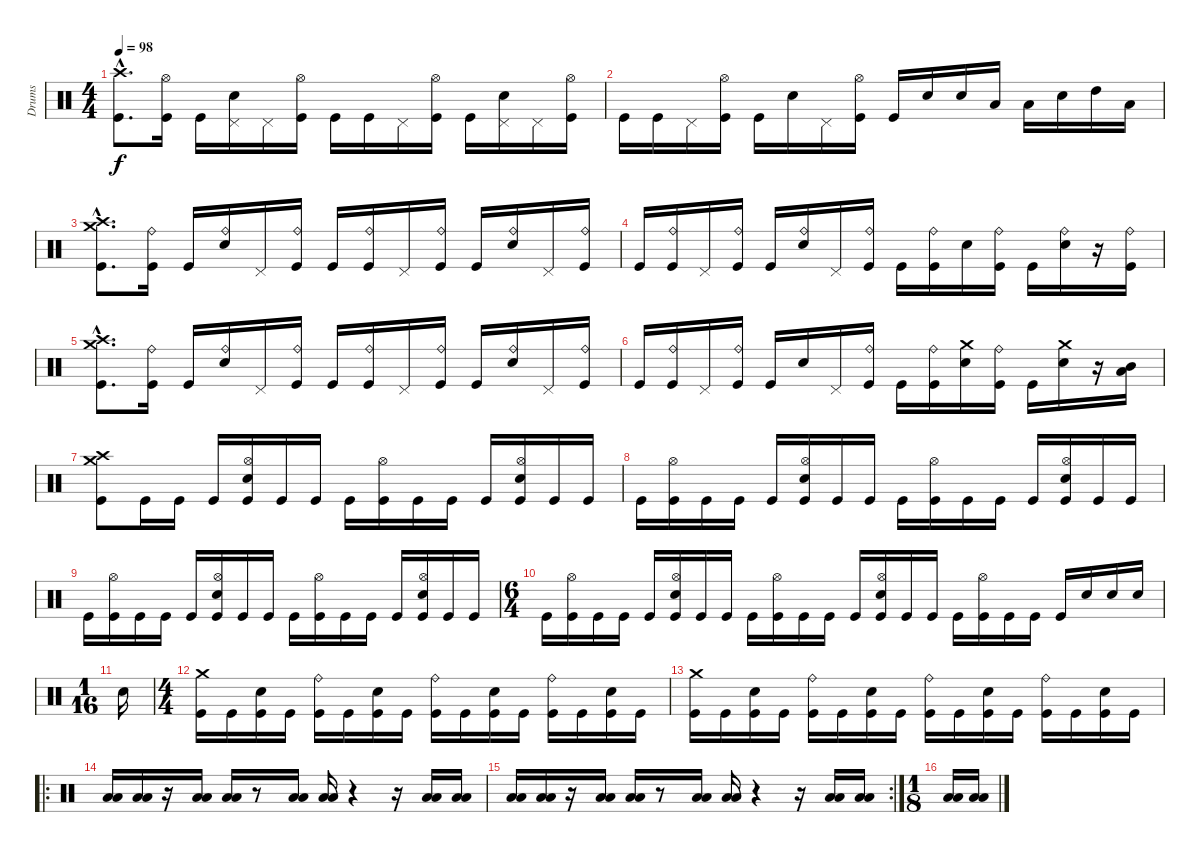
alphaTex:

\track ("Drums" "Drums") {instrument percussion}
\staff {score}
\articulation defaults
\ts (4 4)
\tempo 98
\clef neutral
\ks c
("Crash high (hit)"{hac} "Kick (hit)"{hac}).8{d dy f} ("Hi-Hat (open)" "Kick (hit)").16 "Kick (hit)".16 ("Pedal Hi-Hat (hit)" "Electric Snare (hit)").16 "Pedal Hi-Hat (hit)".16 ("Hi-Hat (open)" "Kick (hit)").16 "Kick (hit)".16 "Kick (hit)".16 "Pedal Hi-Hat (hit)".16 ("Hi-Hat (open)" "Kick (hit)").16 "Kick (hit)".16 ("Pedal Hi-Hat (hit)" "Electric Snare (hit)").16 "Pedal Hi-Hat (hit)".16 ("Hi-Hat (open)" "Kick (hit)").16 |
"Kick (hit)".16 "Kick (hit)".16 "Pedal Hi-Hat (hit)".16 ("Hi-Hat (open)" "Kick (hit)").16 "Kick (hit)".16 "Electric Snare (hit)".16 "Pedal Hi-Hat (hit)".16 ("Hi-Hat (open)" "Kick (hit)").16 "Kick (hit)".16 "Electric Snare (hit)".16 "Electric Snare (hit)".16 "Low Tom (hit)".16 "Low Tom (hit)".16 "Electric Snare (hit)".16 "High Tom (hit)".16 "Low Tom (hit)".16 |
("Crash high (hit)"{hac} "Kick (hit)"{hac} "Crash medium (hit)"{hac}).8{d} ("Ride (bell)" "Kick (hit)").16 "Kick (hit)".16 ("Ride (bell)" "Electric Snare (hit)").16 "Pedal Hi-Hat (hit)".16 ("Ride (bell)" "Kick (hit)").16 "Kick (hit)".16 ("Ride (bell)" "Kick (hit)").16 "Pedal Hi-Hat (hit)".16 ("Ride (bell)" "Kick (hit)").16 "Kick (hit)".16 ("Ride (bell)" "Electric Snare (hit)").16 "Pedal Hi-Hat (hit)".16 ("Ride (bell)" "Kick (hit)").16 |
"Kick (hit)".16 ("Ride (bell)" "Kick (hit)").16 "Pedal Hi-Hat (hit)".16 ("Ride (bell)" "Kick (hit)").16 "Kick (hit)".16 ("Ride (bell)" "Electric Snare (hit)").16 "Pedal Hi-Hat (hit)".16 ("Ride (bell)" "Kick (hit)").16 "Kick (hit)".16 ("Ride (bell)" "Kick (hit)").16 "Electric Snare (hit)".16 ("Ride (bell)" "Kick (hit)").16 "Kick (hit)".16 ("Ride (bell)" "Electric Snare (hit)").16 r.16 ("Ride (bell)" "Kick (hit)").16 |
("Crash high (hit)"{hac} "Kick (hit)"{hac} "Crash medium (hit)"{hac}).8{d} ("Ride (bell)" "Kick (hit)").16 "Kick (hit)".16 ("Ride (bell)" "Electric Snare (hit)").16 "Pedal Hi-Hat (hit)".16 ("Ride (bell)" "Kick (hit)").16 "Kick (hit)".16 ("Ride (bell)" "Kick (hit)").16 "Pedal Hi-Hat (hit)".16 ("Ride (bell)" "Kick (hit)").16 "Kick (hit)".16 ("Ride (bell)" "Electric Snare (hit)").16 "Pedal Hi-Hat (hit)".16 ("Ride (bell)" "Kick (hit)").16 |
"Kick (hit)".16 ("Ride (bell)" "Kick (hit)").16 "Pedal Hi-Hat (hit)".16 ("Ride (bell)" "Kick (hit)").16 "Kick (hit)".16 "Electric Snare (hit)".16 "Pedal Hi-Hat (hit)".16 ("Ride (bell)" "Kick (hit)").16 "Kick (hit)".16 ("Ride (bell)" "Kick (hit)").16 ("Crash medium (hit)" "Electric Snare (hit)").16 ("Ride (bell)" "Kick (hit)").16 "Kick (hit)".16 ("Crash medium (hit)" "Electric Snare (hit)").16 r.16 ("Mid Tom (hit)" "Low Tom (hit)").16 |
("Crash high (hit)" "Crash medium (hit)" "Kick (hit)").8 "Kick (hit)".16 "Kick (hit)".16 "Kick (hit)".16 ("Hi-Hat (open)" "Electric Snare (hit)" "Kick (hit)").16 "Kick (hit)".16 "Kick (hit)".16 "Kick (hit)".16 ("Hi-Hat (open)" "Kick (hit)").16 "Kick (hit)".16 "Kick (hit)".16 "Kick (hit)".16 ("Hi-Hat (open)" "Electric Snare (hit)" "Kick (hit)").16 "Kick (hit)".16 "Kick (hit)".16 |
"Kick (hit)".16 ("Hi-Hat (open)" "Kick (hit)").16 "Kick (hit)".16 "Kick (hit)".16 "Kick (hit)".16 ("Hi-Hat (open)" "Electric Snare (hit)" "Kick (hit)").16 "Kick (hit)".16 "Kick (hit)".16 "Kick (hit)".16 ("Hi-Hat (open)" "Kick (hit)").16 "Kick (hit)".16 "Kick (hit)".16 "Kick (hit)".16 ("Hi-Hat (open)" "Electric Snare (hit)" "Kick (hit)").16 "Kick (hit)".16 "Kick (hit)".16 |
"Kick (hit)".16 ("Hi-Hat (open)" "Kick (hit)").16 "Kick (hit)".16 "Kick (hit)".16 "Kick (hit)".16 ("Hi-Hat (open)" "Electric Snare (hit)" "Kick (hit)").16 "Kick (hit)".16 "Kick (hit)".16 "Kick (hit)".16 ("Hi-Hat (open)" "Kick (hit)").16 "Kick (hit)".16 "Kick (hit)".16 "Kick (hit)".16 ("Hi-Hat (open)" "Electric Snare (hit)" "Kick (hit)").16 "Kick (hit)".16 "Kick (hit)".16 |
\ts (6 4)
"Kick (hit)".16 ("Hi-Hat (open)" "Kick (hit)").16 "Kick (hit)".16 "Kick (hit)".16 "Kick (hit)".16 ("Hi-Hat (open)" "Electric Snare (hit)" "Kick (hit)").16 "Kick (hit)".16 "Kick (hit)".16 "Kick (hit)".16 ("Hi-Hat (open)" "Kick (hit)").16 "Kick (hit)".16 "Kick (hit)".16 "Kick (hit)".16 ("Hi-Hat (open)" "Electric Snare (hit)" "Kick (hit)").16 "Kick (hit)".16 "Kick (hit)".16 "Kick (hit)".16 ("Hi-Hat (open)" "Kick (hit)").16 "Kick (hit)".16 "Kick (hit)".16 "Kick (hit)".16 "Electric Snare (hit)".16 "Electric Snare (hit)".16 "Electric Snare (hit)".16 |
\ts (1 16)
"Electric Snare (hit)".16 |
\ts (4 4)
("Crash medium (hit)" "Kick (hit)").16 "Kick (hit)".16 ("Electric Snare (hit)" "Kick (hit)").16 "Kick (hit)".16 ("Ride (bell)" "Kick (hit)").16 "Kick (hit)".16 ("Electric Snare (hit)" "Kick (hit)").16 "Kick (hit)".16 ("Ride (bell)" "Kick (hit)").16 "Kick (hit)".16 ("Electric Snare (hit)" "Kick (hit)").16 "Kick (hit)".16 ("Ride (bell)" "Kick (hit)").16 "Kick (hit)".16 ("Electric Snare (hit)" "Kick (hit)").16 "Kick (hit)".16 |
("Crash medium (hit)" "Kick (hit)").16 "Kick (hit)".16 ("Electric Snare (hit)" "Kick (hit)").16 "Kick (hit)".16 ("Ride (bell)" "Kick (hit)").16 "Kick (hit)".16 ("Electric Snare (hit)" "Kick (hit)").16 "Kick (hit)".16 ("Ride (bell)" "Kick (hit)").16 "Kick (hit)".16 ("Electric Snare (hit)" "Kick (hit)").16 "Kick (hit)".16 ("Ride (bell)" "Kick (hit)").16 "Kick (hit)".16 ("Electric Snare (hit)" "Kick (hit)").16 "Kick (hit)".16 |
\ro
("Low Tom (hit)" "Low Floor Tom (hit)").16 ("Low Tom (hit)" "Low Floor Tom (hit)").16 r.16 ("Low Tom (hit)" "Low Floor Tom (hit)").16 ("Low Tom (hit)" "Low Floor Tom (hit)").16 r.8 ("Low Tom (hit)" "Low Floor Tom (hit)").16 ("Low Tom (hit)" "Low Floor Tom (hit)").16 r.4 r.16 ("Low Tom (hit)" "Low Floor Tom (hit)").16 ("Low Tom (hit)" "Low Floor Tom (hit)").16 |
\rc 2
("Low Tom (hit)" "Low Floor Tom (hit)").16 ("Low Tom (hit)" "Low Floor Tom (hit)").16 r.16 ("Low Tom (hit)" "Low Floor Tom (hit)").16 ("Low Tom (hit)" "Low Floor Tom (hit)").16 r.8 ("Low Tom (hit)" "Low Floor Tom (hit)").16 ("Low Tom (hit)" "Low Floor Tom (hit)").16 r.4 r.16 ("Low Tom (hit)" "Low Floor Tom (hit)").16 ("Low Tom (hit)" "Low Floor Tom (hit)").16 |
\ts (1 8)
("Low Tom (hit)" "Low Floor Tom (hit)").16 ("Low Tom (hit)" "Low Floor Tom (hit)").16
